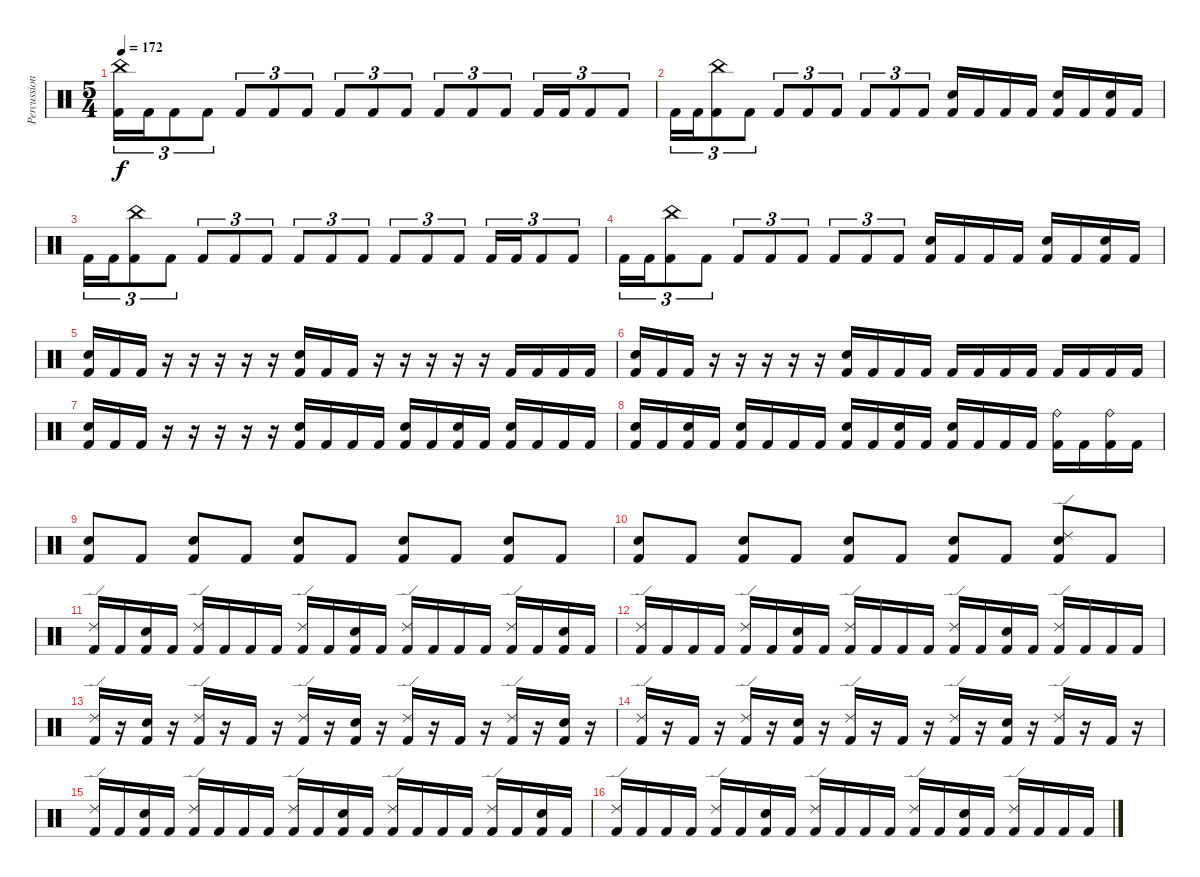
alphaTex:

\track ("Percussion" "Percussion") {instrument percussion}
\staff {score}
\articulation defaults
\ts (5 4)
\tempo 172
\clef neutral
\ks c
("China (hit)" "Kick (hit) 2").16{tu (3 2) dy f} "Kick (hit) 2".16{tu (3 2)} "Kick (hit) 2".8{tu (3 2)} "Kick (hit) 2".8{tu (3 2)} "Kick (hit) 2".8{tu (3 2)} "Kick (hit) 2".8{tu (3 2)} "Kick (hit) 2".8{tu (3 2)} "Kick (hit) 2".8{tu (3 2)} "Kick (hit) 2".8{tu (3 2)} "Kick (hit) 2".8{tu (3 2)} "Kick (hit) 2".8{tu (3 2)} "Kick (hit) 2".8{tu (3 2)} "Kick (hit) 2".8{tu (3 2)} "Kick (hit) 2".16{tu (3 2)} "Kick (hit) 2".16{tu (3 2)} "Kick (hit) 2".8{tu (3 2)} "Kick (hit) 2".8{tu (3 2)} |
"Kick (hit) 2".16{tu (3 2)} "Kick (hit) 2".16{tu (3 2)} ("China (hit)" "Kick (hit) 2").8{tu (3 2)} "Kick (hit) 2".8{tu (3 2)} "Kick (hit) 2".8{tu (3 2)} "Kick (hit) 2".8{tu (3 2)} "Kick (hit) 2".8{tu (3 2)} "Kick (hit) 2".8{tu (3 2)} "Kick (hit) 2".8{tu (3 2)} "Kick (hit) 2".8{tu (3 2)} ("Electric Snare (hit)" "Kick (hit) 2").16 "Kick (hit) 2".16 "Kick (hit) 2".16 "Kick (hit) 2".16 ("Electric Snare (hit)" "Kick (hit) 2").16 "Kick (hit) 2".16 ("Electric Snare (hit)" "Kick (hit) 2").16 "Kick (hit) 2".16 |
"Kick (hit) 2".16{tu (3 2)} "Kick (hit) 2".16{tu (3 2)} ("China (hit)" "Kick (hit) 2").8{tu (3 2)} "Kick (hit) 2".8{tu (3 2)} "Kick (hit) 2".8{tu (3 2)} "Kick (hit) 2".8{tu (3 2)} "Kick (hit) 2".8{tu (3 2)} "Kick (hit) 2".8{tu (3 2)} "Kick (hit) 2".8{tu (3 2)} "Kick (hit) 2".8{tu (3 2)} "Kick (hit) 2".8{tu (3 2)} "Kick (hit) 2".8{tu (3 2)} "Kick (hit) 2".8{tu (3 2)} "Kick (hit) 2".16{tu (3 2)} "Kick (hit) 2".16{tu (3 2)} "Kick (hit) 2".8{tu (3 2)} "Kick (hit) 2".8{tu (3 2)} |
"Kick (hit) 2".16{tu (3 2)} "Kick (hit) 2".16{tu (3 2)} ("China (hit)" "Kick (hit) 2").8{tu (3 2)} "Kick (hit) 2".8{tu (3 2)} "Kick (hit) 2".8{tu (3 2)} "Kick (hit) 2".8{tu (3 2)} "Kick (hit) 2".8{tu (3 2)} "Kick (hit) 2".8{tu (3 2)} "Kick (hit) 2".8{tu (3 2)} "Kick (hit) 2".8{tu (3 2)} ("Electric Snare (hit)" "Kick (hit) 2").16 "Kick (hit) 2".16 "Kick (hit) 2".16 "Kick (hit) 2".16 ("Electric Snare (hit)" "Kick (hit) 2").16 "Kick (hit) 2".16 ("Electric Snare (hit)" "Kick (hit) 2").16 "Kick (hit) 2".16 |
("Electric Snare (hit)" "Kick (hit) 2").16 "Kick (hit) 2".16 "Kick (hit) 2".16 r.16 r.16 r.16 r.16 r.16 ("Electric Snare (hit)" "Kick (hit) 2").16 "Kick (hit) 2".16 "Kick (hit) 2".16 r.16 r.16 r.16 r.16 r.16 "Kick (hit) 2".16 "Kick (hit) 2".16 "Kick (hit) 2".16 "Kick (hit) 2".16 |
("Electric Snare (hit)" "Kick (hit) 2").16 "Kick (hit) 2".16 "Kick (hit) 2".16 r.16 r.16 r.16 r.16 r.16 ("Electric Snare (hit)" "Kick (hit) 2").16 "Kick (hit) 2".16 "Kick (hit) 2".16 "Kick (hit) 2".16 "Kick (hit) 2".16 "Kick (hit) 2".16 "Kick (hit) 2".16 "Kick (hit) 2".16 "Kick (hit) 2".16 "Kick (hit) 2".16 "Kick (hit) 2".16 "Kick (hit) 2".16 |
("Electric Snare (hit)" "Kick (hit) 2").16 "Kick (hit) 2".16 "Kick (hit) 2".16 r.16 r.16 r.16 r.16 r.16 ("Electric Snare (hit)" "Kick (hit) 2").16 "Kick (hit) 2".16 "Kick (hit) 2".16 "Kick (hit) 2".16 ("Electric Snare (hit)" "Kick (hit) 2").16 "Kick (hit) 2".16 ("Electric Snare (hit)" "Kick (hit) 2").16 "Kick (hit) 2".16 ("Electric Snare (hit)" "Kick (hit) 2").16 "Kick (hit) 2".16 "Kick (hit) 2".16 "Kick (hit) 2".16 |
("Electric Snare (hit)" "Kick (hit) 2").16 "Kick (hit) 2".16 ("Electric Snare (hit)" "Kick (hit) 2").16 "Kick (hit) 2".16 ("Electric Snare (hit)" "Kick (hit) 2").16 "Kick (hit) 2".16 "Kick (hit) 2".16 "Kick (hit) 2".16 ("Electric Snare (hit)" "Kick (hit) 2").16 "Kick (hit) 2".16 ("Electric Snare (hit)" "Kick (hit) 2").16 "Kick (hit) 2".16 ("Electric Snare (hit)" "Kick (hit) 2").16 "Kick (hit) 2".16 "Kick (hit) 2".16 "Kick (hit) 2".16 ("Ride (bell)" "Kick (hit) 2").16 "Kick (hit) 2".16 ("Ride (bell)" "Kick (hit) 2").16 "Kick (hit) 2".16 |
("Electric Snare (hit)" "Kick (hit) 2").8 "Kick (hit) 2".8 ("Electric Snare (hit)" "Kick (hit) 2").8 "Kick (hit) 2".8 ("Electric Snare (hit)" "Kick (hit) 2").8 "Kick (hit) 2".8 ("Electric Snare (hit)" "Kick (hit) 2").8 "Kick (hit) 2".8 ("Electric Snare (hit)" "Kick (hit) 2").8 "Kick (hit) 2".8 |
("Electric Snare (hit)" "Kick (hit) 2").8 "Kick (hit) 2".8 ("Electric Snare (hit)" "Kick (hit) 2").8 "Kick (hit) 2".8 ("Electric Snare (hit)" "Kick (hit) 2").8 "Kick (hit) 2".8 ("Electric Snare (hit)" "Kick (hit) 2").8 "Kick (hit) 2".8 ("Ride (edge) 2" "Electric Snare (hit)" "Kick (hit) 2").8 "Kick (hit) 2".8 |
("Ride (edge) 2" "Kick (hit) 2").16 "Kick (hit) 2".16 ("Electric Snare (hit)" "Kick (hit) 2").16 "Kick (hit) 2".16 ("Ride (edge) 2" "Kick (hit) 2").16 "Kick (hit) 2".16 "Kick (hit) 2".16 "Kick (hit) 2".16 ("Ride (edge) 2" "Kick (hit) 2").16 "Kick (hit) 2".16 ("Electric Snare (hit)" "Kick (hit) 2").16 "Kick (hit) 2".16 ("Ride (edge) 2" "Kick (hit) 2").16 "Kick (hit) 2".16 "Kick (hit) 2".16 "Kick (hit) 2".16 ("Ride (edge) 2" "Kick (hit) 2").16 "Kick (hit) 2".16 ("Electric Snare (hit)" "Kick (hit) 2").16 "Kick (hit) 2".16 |
("Ride (edge) 2" "Kick (hit) 2").16 "Kick (hit) 2".16 "Kick (hit) 2".16 "Kick (hit) 2".16 ("Ride (edge) 2" "Kick (hit) 2").16 "Kick (hit) 2".16 ("Electric Snare (hit)" "Kick (hit) 2").16 "Kick (hit) 2".16 ("Ride (edge) 2" "Kick (hit) 2").16 "Kick (hit) 2".16 "Kick (hit) 2".16 "Kick (hit) 2".16 ("Ride (edge) 2" "Kick (hit) 2").16 "Kick (hit) 2".16 ("Electric Snare (hit)" "Kick (hit) 2").16 "Kick (hit) 2".16 ("Ride (edge) 2" "Kick (hit) 2").16 "Kick (hit) 2".16 "Kick (hit) 2".16 "Kick (hit) 2".16 |
("Ride (edge) 2" "Kick (hit) 2").16 r.16 ("Electric Snare (hit)" "Kick (hit) 2").16 r.16 ("Ride (edge) 2" "Kick (hit) 2").16 r.16 "Kick (hit) 2".16 r.16 ("Ride (edge) 2" "Kick (hit) 2").16 r.16 ("Electric Snare (hit)" "Kick (hit) 2").16 r.16 ("Ride (edge) 2" "Kick (hit) 2").16 r.16 "Kick (hit) 2".16 r.16 ("Ride (edge) 2" "Kick (hit) 2").16 r.16 ("Electric Snare (hit)" "Kick (hit) 2").16 r.16 |
("Ride (edge) 2" "Kick (hit) 2").16 r.16 "Kick (hit) 2".16 r.16 ("Ride (edge) 2" "Kick (hit) 2").16 r.16 ("Electric Snare (hit)" "Kick (hit) 2").16 r.16 ("Ride (edge) 2" "Kick (hit) 2").16 r.16 "Kick (hit) 2".16 r.16 ("Ride (edge) 2" "Kick (hit) 2").16 r.16 ("Electric Snare (hit)" "Kick (hit) 2").16 r.16 ("Ride (edge) 2" "Kick (hit) 2").16 r.16 "Kick (hit) 2".16 r.16 |
("Ride (edge) 2" "Kick (hit) 2").16 "Kick (hit) 2".16 ("Electric Snare (hit)" "Kick (hit) 2").16 "Kick (hit) 2".16 ("Ride (edge) 2" "Kick (hit) 2").16 "Kick (hit) 2".16 "Kick (hit) 2".16 "Kick (hit) 2".16 ("Ride (edge) 2" "Kick (hit) 2").16 "Kick (hit) 2".16 ("Electric Snare (hit)" "Kick (hit) 2").16 "Kick (hit) 2".16 ("Ride (edge) 2" "Kick (hit) 2").16 "Kick (hit) 2".16 "Kick (hit) 2".16 "Kick (hit) 2".16 ("Ride (edge) 2" "Kick (hit) 2").16 "Kick (hit) 2".16 ("Electric Snare (hit)" "Kick (hit) 2").16 "Kick (hit) 2".16 |
("Ride (edge) 2" "Kick (hit) 2").16 "Kick (hit) 2".16 "Kick (hit) 2".16 "Kick (hit) 2".16 ("Ride (edge) 2" "Kick (hit) 2").16 "Kick (hit) 2".16 ("Electric Snare (hit)" "Kick (hit) 2").16 "Kick (hit) 2".16 ("Ride (edge) 2" "Kick (hit) 2").16 "Kick (hit) 2".16 "Kick (hit) 2".16 "Kick (hit) 2".16 ("Ride (edge) 2" "Kick (hit) 2").16 "Kick (hit) 2".16 ("Electric Snare (hit)" "Kick (hit) 2").16 "Kick (hit) 2".16 ("Ride (edge) 2" "Kick (hit) 2").16 "Kick (hit) 2".16 "Kick (hit) 2".16 "Kick (hit) 2".16
